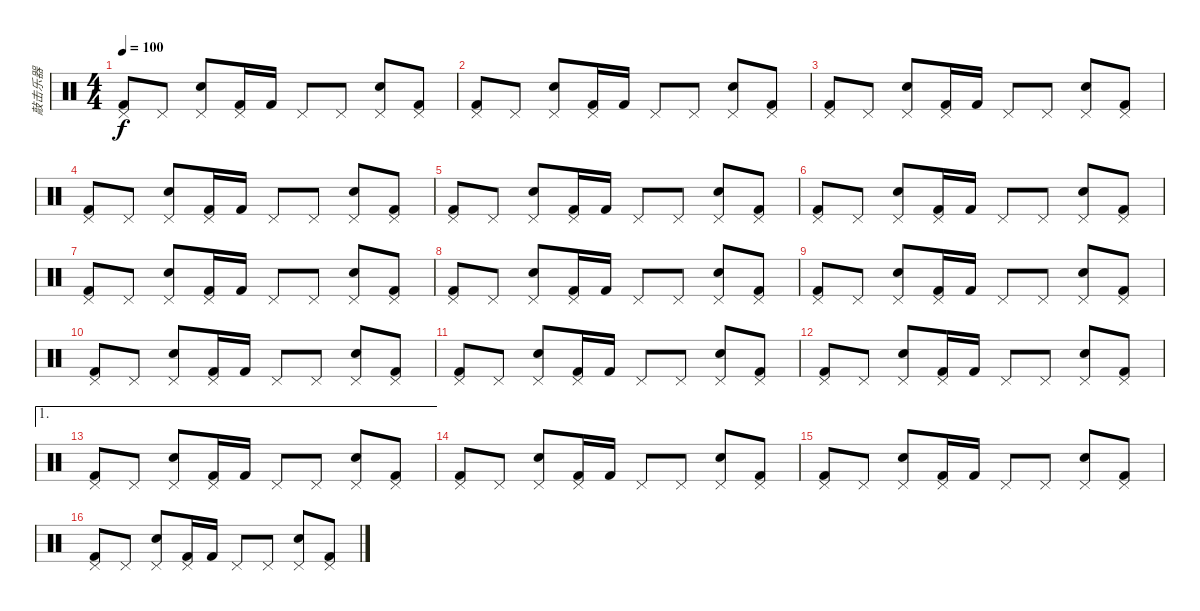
\track ("敲击乐器" "敲击乐器") {instrument percussion}
\staff {score}
\articulation defaults
\ts (4 4)
\tempo 100
\clef neutral
\ks c
("Pedal Hi-Hat (hit)" "Kick (hit) 2").8{dy f} "Pedal Hi-Hat (hit)".8 ("Pedal Hi-Hat (hit)" "Electric Snare (hit)").8 ("Pedal Hi-Hat (hit)" "Kick (hit) 2").16 "Kick (hit) 2".16 "Pedal Hi-Hat (hit)".8 "Pedal Hi-Hat (hit)".8 ("Pedal Hi-Hat (hit)" "Electric Snare (hit)").8 ("Pedal Hi-Hat (hit)" "Kick (hit) 2").8 |
("Pedal Hi-Hat (hit)" "Kick (hit) 2").8 "Pedal Hi-Hat (hit)".8 ("Pedal Hi-Hat (hit)" "Electric Snare (hit)").8 ("Pedal Hi-Hat (hit)" "Kick (hit) 2").16 "Kick (hit) 2".16 "Pedal Hi-Hat (hit)".8 "Pedal Hi-Hat (hit)".8 ("Pedal Hi-Hat (hit)" "Electric Snare (hit)").8 ("Pedal Hi-Hat (hit)" "Kick (hit) 2").8 |
("Pedal Hi-Hat (hit)" "Kick (hit) 2").8 "Pedal Hi-Hat (hit)".8 ("Pedal Hi-Hat (hit)" "Electric Snare (hit)").8 ("Pedal Hi-Hat (hit)" "Kick (hit) 2").16 "Kick (hit) 2".16 "Pedal Hi-Hat (hit)".8 "Pedal Hi-Hat (hit)".8 ("Pedal Hi-Hat (hit)" "Electric Snare (hit)").8 ("Pedal Hi-Hat (hit)" "Kick (hit) 2").8 |
("Pedal Hi-Hat (hit)" "Kick (hit) 2").8 "Pedal Hi-Hat (hit)".8 ("Pedal Hi-Hat (hit)" "Electric Snare (hit)").8 ("Pedal Hi-Hat (hit)" "Kick (hit) 2").16 "Kick (hit) 2".16 "Pedal Hi-Hat (hit)".8 "Pedal Hi-Hat (hit)".8 ("Pedal Hi-Hat (hit)" "Electric Snare (hit)").8 ("Pedal Hi-Hat (hit)" "Kick (hit) 2").8 |
("Pedal Hi-Hat (hit)" "Kick (hit) 2").8 "Pedal Hi-Hat (hit)".8 ("Pedal Hi-Hat (hit)" "Electric Snare (hit)").8 ("Pedal Hi-Hat (hit)" "Kick (hit) 2").16 "Kick (hit) 2".16 "Pedal Hi-Hat (hit)".8 "Pedal Hi-Hat (hit)".8 ("Pedal Hi-Hat (hit)" "Electric Snare (hit)").8 ("Pedal Hi-Hat (hit)" "Kick (hit) 2").8 |
("Pedal Hi-Hat (hit)" "Kick (hit) 2").8 "Pedal Hi-Hat (hit)".8 ("Pedal Hi-Hat (hit)" "Electric Snare (hit)").8 ("Pedal Hi-Hat (hit)" "Kick (hit) 2").16 "Kick (hit) 2".16 "Pedal Hi-Hat (hit)".8 "Pedal Hi-Hat (hit)".8 ("Pedal Hi-Hat (hit)" "Electric Snare (hit)").8 ("Pedal Hi-Hat (hit)" "Kick (hit) 2").8 |
("Pedal Hi-Hat (hit)" "Kick (hit) 2").8 "Pedal Hi-Hat (hit)".8 ("Pedal Hi-Hat (hit)" "Electric Snare (hit)").8 ("Pedal Hi-Hat (hit)" "Kick (hit) 2").16 "Kick (hit) 2".16 "Pedal Hi-Hat (hit)".8 "Pedal Hi-Hat (hit)".8 ("Pedal Hi-Hat (hit)" "Electric Snare (hit)").8 ("Pedal Hi-Hat (hit)" "Kick (hit) 2").8 |
("Pedal Hi-Hat (hit)" "Kick (hit) 2").8 "Pedal Hi-Hat (hit)".8 ("Pedal Hi-Hat (hit)" "Electric Snare (hit)").8 ("Pedal Hi-Hat (hit)" "Kick (hit) 2").16 "Kick (hit) 2".16 "Pedal Hi-Hat (hit)".8 "Pedal Hi-Hat (hit)".8 ("Pedal Hi-Hat (hit)" "Electric Snare (hit)").8 ("Pedal Hi-Hat (hit)" "Kick (hit) 2").8 |
("Pedal Hi-Hat (hit)" "Kick (hit) 2").8 "Pedal Hi-Hat (hit)".8 ("Pedal Hi-Hat (hit)" "Electric Snare (hit)").8 ("Pedal Hi-Hat (hit)" "Kick (hit) 2").16 "Kick (hit) 2".16 "Pedal Hi-Hat (hit)".8 "Pedal Hi-Hat (hit)".8 ("Pedal Hi-Hat (hit)" "Electric Snare (hit)").8 ("Pedal Hi-Hat (hit)" "Kick (hit) 2").8 |
("Pedal Hi-Hat (hit)" "Kick (hit) 2").8 "Pedal Hi-Hat (hit)".8 ("Pedal Hi-Hat (hit)" "Electric Snare (hit)").8 ("Pedal Hi-Hat (hit)" "Kick (hit) 2").16 "Kick (hit) 2".16 "Pedal Hi-Hat (hit)".8 "Pedal Hi-Hat (hit)".8 ("Pedal Hi-Hat (hit)" "Electric Snare (hit)").8 ("Pedal Hi-Hat (hit)" "Kick (hit) 2").8 |
("Pedal Hi-Hat (hit)" "Kick (hit) 2").8 "Pedal Hi-Hat (hit)".8 ("Pedal Hi-Hat (hit)" "Electric Snare (hit)").8 ("Pedal Hi-Hat (hit)" "Kick (hit) 2").16 "Kick (hit) 2".16 "Pedal Hi-Hat (hit)".8 "Pedal Hi-Hat (hit)".8 ("Pedal Hi-Hat (hit)" "Electric Snare (hit)").8 ("Pedal Hi-Hat (hit)" "Kick (hit) 2").8 |
("Pedal Hi-Hat (hit)" "Kick (hit) 2").8 "Pedal Hi-Hat (hit)".8 ("Pedal Hi-Hat (hit)" "Electric Snare (hit)").8 ("Pedal Hi-Hat (hit)" "Kick (hit) 2").16 "Kick (hit) 2".16 "Pedal Hi-Hat (hit)".8 "Pedal Hi-Hat (hit)".8 ("Pedal Hi-Hat (hit)" "Electric Snare (hit)").8 ("Pedal Hi-Hat (hit)" "Kick (hit) 2").8 |
\ae 1
("Pedal Hi-Hat (hit)" "Kick (hit) 2").8 "Pedal Hi-Hat (hit)".8 ("Pedal Hi-Hat (hit)" "Electric Snare (hit)").8 ("Pedal Hi-Hat (hit)" "Kick (hit) 2").16 "Kick (hit) 2".16 "Pedal Hi-Hat (hit)".8 "Pedal Hi-Hat (hit)".8 ("Pedal Hi-Hat (hit)" "Electric Snare (hit)").8 ("Pedal Hi-Hat (hit)" "Kick (hit) 2").8 |
("Pedal Hi-Hat (hit)" "Kick (hit) 2").8 "Pedal Hi-Hat (hit)".8 ("Pedal Hi-Hat (hit)" "Electric Snare (hit)").8 ("Pedal Hi-Hat (hit)" "Kick (hit) 2").16 "Kick (hit) 2".16 "Pedal Hi-Hat (hit)".8 "Pedal Hi-Hat (hit)".8 ("Pedal Hi-Hat (hit)" "Electric Snare (hit)").8 ("Pedal Hi-Hat (hit)" "Kick (hit) 2").8 |
("Pedal Hi-Hat (hit)" "Kick (hit) 2").8 "Pedal Hi-Hat (hit)".8 ("Pedal Hi-Hat (hit)" "Electric Snare (hit)").8 ("Pedal Hi-Hat (hit)" "Kick (hit) 2").16 "Kick (hit) 2".16 "Pedal Hi-Hat (hit)".8 "Pedal Hi-Hat (hit)".8 ("Pedal Hi-Hat (hit)" "Electric Snare (hit)").8 ("Pedal Hi-Hat (hit)" "Kick (hit) 2").8 |
("Pedal Hi-Hat (hit)" "Kick (hit) 2").8 "Pedal Hi-Hat (hit)".8 ("Pedal Hi-Hat (hit)" "Electric Snare (hit)").8 ("Pedal Hi-Hat (hit)" "Kick (hit) 2").16 "Kick (hit) 2".16 "Pedal Hi-Hat (hit)".8 "Pedal Hi-Hat (hit)".8 ("Pedal Hi-Hat (hit)" "Electric Snare (hit)").8 ("Pedal Hi-Hat (hit)" "Kick (hit) 2").8
